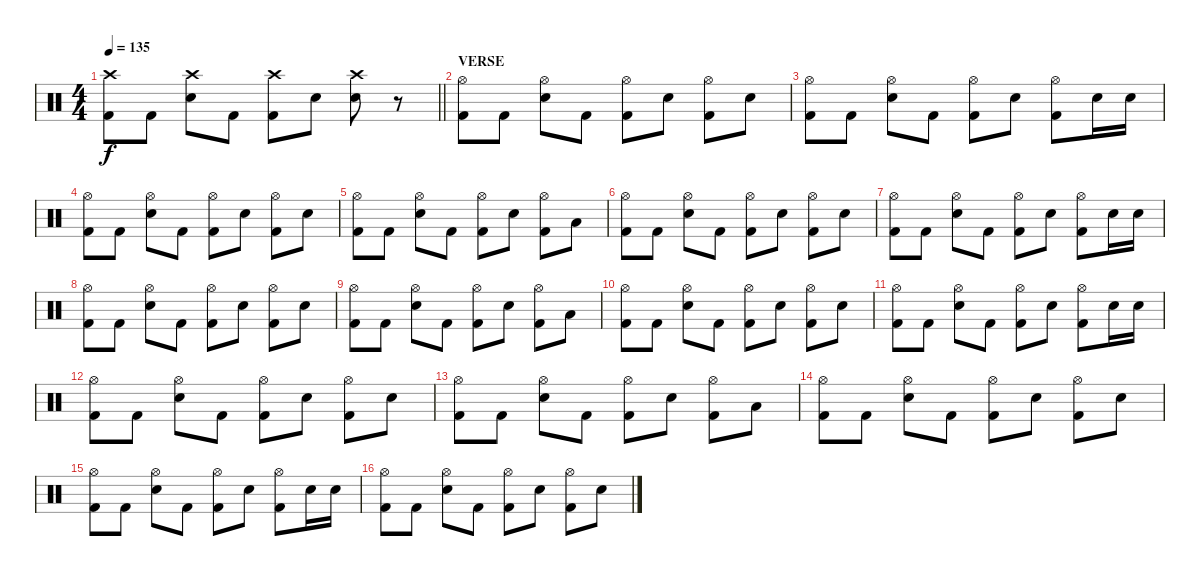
\track "" {instrument percussion}
\staff {score}
\articulation defaults
\ts (4 4)
\tempo 135
\clef neutral
\barLineRight lightlight
\ks c
("Crash high (hit)" "Kick (hit) 2").8{dy f} "Kick (hit) 2".8 ("Crash high (hit)" "Electric Snare (hit)").8 "Kick (hit) 2".8 ("Crash high (hit)" "Kick (hit) 2").8 "Electric Snare (hit)".8 ("Crash high (hit)" "Electric Snare (hit)").8 r.8 |
\section ("" "VERSE")
("Hi-Hat (open)" "Kick (hit) 2").8 "Kick (hit) 2".8 ("Hi-Hat (open)" "Electric Snare (hit)").8 "Kick (hit) 2".8 ("Hi-Hat (open)" "Kick (hit) 2").8 "Electric Snare (hit)".8 ("Hi-Hat (open)" "Kick (hit) 2").8 "Electric Snare (hit)".8 |
("Hi-Hat (open)" "Kick (hit) 2").8 "Kick (hit) 2".8 ("Hi-Hat (open)" "Electric Snare (hit)").8 "Kick (hit) 2".8 ("Hi-Hat (open)" "Kick (hit) 2").8 "Electric Snare (hit)".8 ("Hi-Hat (open)" "Kick (hit) 2").8 "Electric Snare (hit)".16 "Electric Snare (hit)".16 |
("Hi-Hat (open)" "Kick (hit) 2").8 "Kick (hit) 2".8 ("Hi-Hat (open)" "Electric Snare (hit)").8 "Kick (hit) 2".8 ("Hi-Hat (open)" "Kick (hit) 2").8 "Electric Snare (hit)".8 ("Hi-Hat (open)" "Kick (hit) 2").8 "Electric Snare (hit)".8 |
("Hi-Hat (open)" "Kick (hit) 2").8 "Kick (hit) 2".8 ("Hi-Hat (open)" "Electric Snare (hit)").8 "Kick (hit) 2".8 ("Hi-Hat (open)" "Kick (hit) 2").8 "Electric Snare (hit)".8 ("Hi-Hat (open)" "Kick (hit) 2").8 "Low Tom (hit)".8 |
("Hi-Hat (open)" "Kick (hit) 2").8 "Kick (hit) 2".8 ("Hi-Hat (open)" "Electric Snare (hit)").8 "Kick (hit) 2".8 ("Hi-Hat (open)" "Kick (hit) 2").8 "Electric Snare (hit)".8 ("Hi-Hat (open)" "Kick (hit) 2").8 "Electric Snare (hit)".8 |
("Hi-Hat (open)" "Kick (hit) 2").8 "Kick (hit) 2".8 ("Hi-Hat (open)" "Electric Snare (hit)").8 "Kick (hit) 2".8 ("Hi-Hat (open)" "Kick (hit) 2").8 "Electric Snare (hit)".8 ("Hi-Hat (open)" "Kick (hit) 2").8 "Electric Snare (hit)".16 "Electric Snare (hit)".16 |
("Hi-Hat (open)" "Kick (hit) 2").8 "Kick (hit) 2".8 ("Hi-Hat (open)" "Electric Snare (hit)").8 "Kick (hit) 2".8 ("Hi-Hat (open)" "Kick (hit) 2").8 "Electric Snare (hit)".8 ("Hi-Hat (open)" "Kick (hit) 2").8 "Electric Snare (hit)".8 |
("Hi-Hat (open)" "Kick (hit) 2").8 "Kick (hit) 2".8 ("Hi-Hat (open)" "Electric Snare (hit)").8 "Kick (hit) 2".8 ("Hi-Hat (open)" "Kick (hit) 2").8 "Electric Snare (hit)".8 ("Hi-Hat (open)" "Kick (hit) 2").8 "Low Tom (hit)".8 |
("Hi-Hat (open)" "Kick (hit) 2").8 "Kick (hit) 2".8 ("Hi-Hat (open)" "Electric Snare (hit)").8 "Kick (hit) 2".8 ("Hi-Hat (open)" "Kick (hit) 2").8 "Electric Snare (hit)".8 ("Hi-Hat (open)" "Kick (hit) 2").8 "Electric Snare (hit)".8 |
("Hi-Hat (open)" "Kick (hit) 2").8 "Kick (hit) 2".8 ("Hi-Hat (open)" "Electric Snare (hit)").8 "Kick (hit) 2".8 ("Hi-Hat (open)" "Kick (hit) 2").8 "Electric Snare (hit)".8 ("Hi-Hat (open)" "Kick (hit) 2").8 "Electric Snare (hit)".16 "Electric Snare (hit)".16 |
("Hi-Hat (open)" "Kick (hit) 2").8 "Kick (hit) 2".8 ("Hi-Hat (open)" "Electric Snare (hit)").8 "Kick (hit) 2".8 ("Hi-Hat (open)" "Kick (hit) 2").8 "Electric Snare (hit)".8 ("Hi-Hat (open)" "Kick (hit) 2").8 "Electric Snare (hit)".8 |
("Hi-Hat (open)" "Kick (hit) 2").8 "Kick (hit) 2".8 ("Hi-Hat (open)" "Electric Snare (hit)").8 "Kick (hit) 2".8 ("Hi-Hat (open)" "Kick (hit) 2").8 "Electric Snare (hit)".8 ("Hi-Hat (open)" "Kick (hit) 2").8 "Low Tom (hit)".8 |
("Hi-Hat (open)" "Kick (hit) 2").8 "Kick (hit) 2".8 ("Hi-Hat (open)" "Electric Snare (hit)").8 "Kick (hit) 2".8 ("Hi-Hat (open)" "Kick (hit) 2").8 "Electric Snare (hit)".8 ("Hi-Hat (open)" "Kick (hit) 2").8 "Electric Snare (hit)".8 |
("Hi-Hat (open)" "Kick (hit) 2").8 "Kick (hit) 2".8 ("Hi-Hat (open)" "Electric Snare (hit)").8 "Kick (hit) 2".8 ("Hi-Hat (open)" "Kick (hit) 2").8 "Electric Snare (hit)".8 ("Hi-Hat (open)" "Kick (hit) 2").8 "Electric Snare (hit)".16 "Electric Snare (hit)".16 |
("Hi-Hat (open)" "Kick (hit) 2").8 "Kick (hit) 2".8 ("Hi-Hat (open)" "Electric Snare (hit)").8 "Kick (hit) 2".8 ("Hi-Hat (open)" "Kick (hit) 2").8 "Electric Snare (hit)".8 ("Hi-Hat (open)" "Kick (hit) 2").8 "Electric Snare (hit)".8
